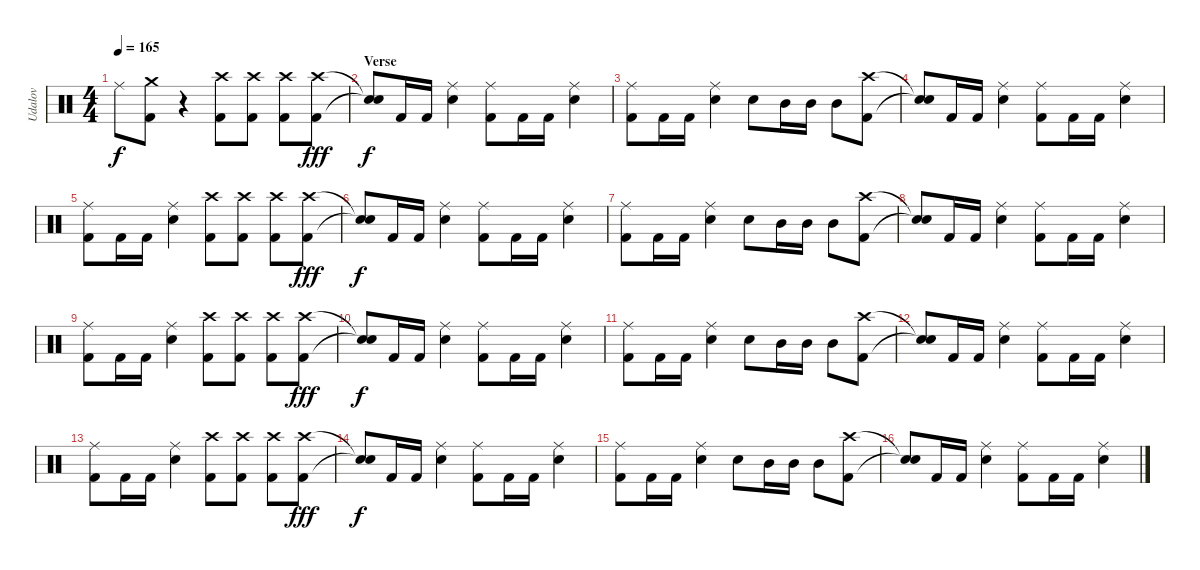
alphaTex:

\track ("Udalov" "Udalov") {instrument percussion}
\staff {score}
\articulation defaults
\ts (4 4)
\tempo 165
\clef neutral
\ks c "Ride (middle)".8{dy f}
("Kick (hit) 2" "Crash medium (hit)").8 r.4 ("Kick (hit) 2" "Crash high (hit)").8 ("Kick (hit) 2" "Crash high (hit)").8 ("Kick (hit) 2" "Crash high (hit)").8 ("Kick (hit) 2" "Crash high (hit)").8{dy fff} |
\section ("" "Verse")
("Snare (hit)"{t} "Snare (hit)"{t}).8{dy f} "Kick (hit) 2".16 "Kick (hit) 2".16 ("Snare (hit) 2" "Ride (middle)").4 ("Kick (hit) 2" "Ride (middle)").8 "Kick (hit) 2".16 "Kick (hit) 2".16 ("Snare (hit) 2" "Ride (middle)").4 |
("Kick (hit) 2" "Ride (middle)").8 "Kick (hit) 2".16 "Kick (hit) 2".16 ("Snare (hit) 2" "Ride (middle)").4 "Snare (hit) 2".8 "Mid Tom (hit)".16 "Mid Tom (hit)".16 "Mid Tom (hit)".8 ("Kick (hit) 2" "Crash high (hit)").8 |
("Snare (hit)"{t} "Snare (hit)"{t}).8 "Kick (hit) 2".16 "Kick (hit) 2".16 ("Snare (hit) 2" "Ride (middle)").4 ("Kick (hit) 2" "Ride (middle)").8 "Kick (hit) 2".16 "Kick (hit) 2".16 ("Snare (hit) 2" "Ride (middle)").4 |
("Kick (hit) 2" "Ride (middle)").8 "Kick (hit) 2".16 "Kick (hit) 2".16 ("Snare (hit) 2" "Ride (middle)").4 ("Kick (hit) 2" "Crash high (hit)").8 ("Kick (hit) 2" "Crash high (hit)").8 ("Kick (hit) 2" "Crash high (hit)").8 ("Kick (hit) 2" "Crash high (hit)").8{dy fff} |
("Snare (hit)"{t} "Snare (hit)"{t}).8{dy f} "Kick (hit) 2".16 "Kick (hit) 2".16 ("Snare (hit) 2" "Ride (middle)").4 ("Kick (hit) 2" "Ride (middle)").8 "Kick (hit) 2".16 "Kick (hit) 2".16 ("Snare (hit) 2" "Ride (middle)").4 |
("Kick (hit) 2" "Ride (middle)").8 "Kick (hit) 2".16 "Kick (hit) 2".16 ("Snare (hit) 2" "Ride (middle)").4 "Snare (hit) 2".8 "Mid Tom (hit)".16 "Mid Tom (hit)".16 "Mid Tom (hit)".8 ("Kick (hit) 2" "Crash high (hit)").8 |
("Snare (hit)"{t} "Snare (hit)"{t}).8 "Kick (hit) 2".16 "Kick (hit) 2".16 ("Snare (hit) 2" "Ride (middle)").4 ("Kick (hit) 2" "Ride (middle)").8 "Kick (hit) 2".16 "Kick (hit) 2".16 ("Snare (hit) 2" "Ride (middle)").4 |
("Kick (hit) 2" "Ride (middle)").8 "Kick (hit) 2".16 "Kick (hit) 2".16 ("Snare (hit) 2" "Ride (middle)").4 ("Kick (hit) 2" "Crash high (hit)").8 ("Kick (hit) 2" "Crash high (hit)").8 ("Kick (hit) 2" "Crash high (hit)").8 ("Kick (hit) 2" "Crash high (hit)").8{dy fff} |
("Snare (hit)"{t} "Snare (hit)"{t}).8{dy f} "Kick (hit) 2".16 "Kick (hit) 2".16 ("Snare (hit) 2" "Ride (middle)").4 ("Kick (hit) 2" "Ride (middle)").8 "Kick (hit) 2".16 "Kick (hit) 2".16 ("Snare (hit) 2" "Ride (middle)").4 |
("Kick (hit) 2" "Ride (middle)").8 "Kick (hit) 2".16 "Kick (hit) 2".16 ("Snare (hit) 2" "Ride (middle)").4 "Snare (hit) 2".8 "Mid Tom (hit)".16 "Mid Tom (hit)".16 "Mid Tom (hit)".8 ("Kick (hit) 2" "Crash high (hit)").8 |
("Snare (hit)"{t} "Snare (hit)"{t}).8 "Kick (hit) 2".16 "Kick (hit) 2".16 ("Snare (hit) 2" "Ride (middle)").4 ("Kick (hit) 2" "Ride (middle)").8 "Kick (hit) 2".16 "Kick (hit) 2".16 ("Snare (hit) 2" "Ride (middle)").4 |
("Kick (hit) 2" "Ride (middle)").8 "Kick (hit) 2".16 "Kick (hit) 2".16 ("Snare (hit) 2" "Ride (middle)").4 ("Kick (hit) 2" "Crash high (hit)").8 ("Kick (hit) 2" "Crash high (hit)").8 ("Kick (hit) 2" "Crash high (hit)").8 ("Kick (hit) 2" "Crash high (hit)").8{dy fff} |
("Snare (hit)"{t} "Snare (hit)"{t}).8{dy f} "Kick (hit) 2".16 "Kick (hit) 2".16 ("Snare (hit) 2" "Ride (middle)").4 ("Kick (hit) 2" "Ride (middle)").8 "Kick (hit) 2".16 "Kick (hit) 2".16 ("Snare (hit) 2" "Ride (middle)").4 |
("Kick (hit) 2" "Ride (middle)").8 "Kick (hit) 2".16 "Kick (hit) 2".16 ("Snare (hit) 2" "Ride (middle)").4 "Snare (hit) 2".8 "Mid Tom (hit)".16 "Mid Tom (hit)".16 "Mid Tom (hit)".8 ("Kick (hit) 2" "Crash high (hit)").8 |
("Snare (hit)"{t} "Snare (hit)"{t}).8 "Kick (hit) 2".16 "Kick (hit) 2".16 ("Snare (hit) 2" "Ride (middle)").4 ("Kick (hit) 2" "Ride (middle)").8 "Kick (hit) 2".16 "Kick (hit) 2".16 ("Snare (hit) 2" "Ride (middle)").4
